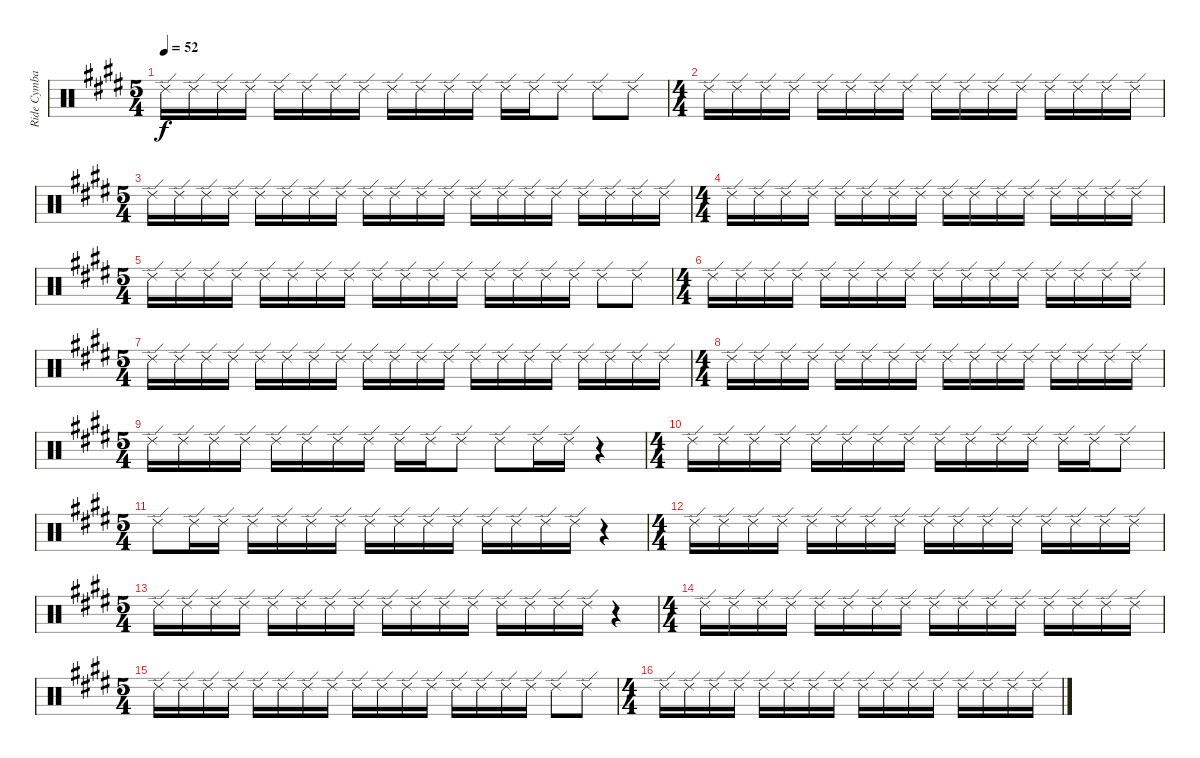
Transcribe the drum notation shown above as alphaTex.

\track ("Ride Cymbal" "Ride Cymba") {instrument percussion}
\staff {score}
\articulation defaults
\ts (5 4)
\tempo 52
\clef neutral
\ks e "Ride (edge) 2".16{dy f} "Ride (edge) 2".16 "Ride (edge) 2".16 "Ride (edge) 2".16 "Ride (edge) 2".16 "Ride (edge) 2".16 "Ride (edge) 2".16 "Ride (edge) 2".16 "Ride (edge) 2".16 "Ride (edge) 2".16 "Ride (edge) 2".16 "Ride (edge) 2".16 "Ride (edge) 2".16 "Ride (edge) 2".16 "Ride (edge) 2".8 "Ride (edge) 2".8 "Ride (edge) 2".8
|
\ts (4 4)
"Ride (edge) 2".16 "Ride (edge) 2".16 "Ride (edge) 2".16 "Ride (edge) 2".16 "Ride (edge) 2".16 "Ride (edge) 2".16 "Ride (edge) 2".16 "Ride (edge) 2".16 "Ride (edge) 2".16 "Ride (edge) 2".16 "Ride (edge) 2".16 "Ride (edge) 2".16 "Ride (edge) 2".16 "Ride (edge) 2".16 "Ride (edge) 2".16 "Ride (edge) 2".16 |
\ts (5 4)
"Ride (edge) 2".16 "Ride (edge) 2".16 "Ride (edge) 2".16 "Ride (edge) 2".16 "Ride (edge) 2".16 "Ride (edge) 2".16 "Ride (edge) 2".16 "Ride (edge) 2".16 "Ride (edge) 2".16 "Ride (edge) 2".16 "Ride (edge) 2".16 "Ride (edge) 2".16 "Ride (edge) 2".16 "Ride (edge) 2".16 "Ride (edge) 2".16 "Ride (edge) 2".16 "Ride (edge) 2".16 "Ride (edge) 2".16 "Ride (edge) 2".16 "Ride (edge) 2".16 |
\ts (4 4)
"Ride (edge) 2".16 "Ride (edge) 2".16 "Ride (edge) 2".16 "Ride (edge) 2".16 "Ride (edge) 2".16 "Ride (edge) 2".16 "Ride (edge) 2".16 "Ride (edge) 2".16 "Ride (edge) 2".16 "Ride (edge) 2".16 "Ride (edge) 2".16 "Ride (edge) 2".16 "Ride (edge) 2".16 "Ride (edge) 2".16 "Ride (edge) 2".16 "Ride (edge) 2".16 |
\ts (5 4)
"Ride (edge) 2".16 "Ride (edge) 2".16 "Ride (edge) 2".16 "Ride (edge) 2".16 "Ride (edge) 2".16 "Ride (edge) 2".16 "Ride (edge) 2".16 "Ride (edge) 2".16 "Ride (edge) 2".16 "Ride (edge) 2".16 "Ride (edge) 2".16 "Ride (edge) 2".16 "Ride (edge) 2".16 "Ride (edge) 2".16 "Ride (edge) 2".16 "Ride (edge) 2".16 "Ride (edge) 2".8 "Ride (edge) 2".8 |
\ts (4 4)
"Ride (edge) 2".16 "Ride (edge) 2".16 "Ride (edge) 2".16 "Ride (edge) 2".16 "Ride (edge) 2".16 "Ride (edge) 2".16 "Ride (edge) 2".16 "Ride (edge) 2".16 "Ride (edge) 2".16 "Ride (edge) 2".16 "Ride (edge) 2".16 "Ride (edge) 2".16 "Ride (edge) 2".16 "Ride (edge) 2".16 "Ride (edge) 2".16 "Ride (edge) 2".16 |
\ts (5 4)
"Ride (edge) 2".16 "Ride (edge) 2".16 "Ride (edge) 2".16 "Ride (edge) 2".16 "Ride (edge) 2".16 "Ride (edge) 2".16 "Ride (edge) 2".16 "Ride (edge) 2".16 "Ride (edge) 2".16 "Ride (edge) 2".16 "Ride (edge) 2".16 "Ride (edge) 2".16 "Ride (edge) 2".16 "Ride (edge) 2".16 "Ride (edge) 2".16 "Ride (edge) 2".16 "Ride (edge) 2".16 "Ride (edge) 2".16 "Ride (edge) 2".16 "Ride (edge) 2".16 |
\ts (4 4)
"Ride (edge) 2".16 "Ride (edge) 2".16 "Ride (edge) 2".16 "Ride (edge) 2".16 "Ride (edge) 2".16 "Ride (edge) 2".16 "Ride (edge) 2".16 "Ride (edge) 2".16 "Ride (edge) 2".16 "Ride (edge) 2".16 "Ride (edge) 2".16 "Ride (edge) 2".16 "Ride (edge) 2".16 "Ride (edge) 2".16 "Ride (edge) 2".16 "Ride (edge) 2".16 |
\ts (5 4)
"Ride (edge) 2".16 "Ride (edge) 2".16 "Ride (edge) 2".16 "Ride (edge) 2".16 "Ride (edge) 2".16 "Ride (edge) 2".16 "Ride (edge) 2".16 "Ride (edge) 2".16 "Ride (edge) 2".16 "Ride (edge) 2".16 "Ride (edge) 2".8 "Ride (edge) 2".8 "Ride (edge) 2".16 "Ride (edge) 2".16 r.4 |
\ts (4 4)
"Ride (edge) 2".16 "Ride (edge) 2".16 "Ride (edge) 2".16 "Ride (edge) 2".16 "Ride (edge) 2".16 "Ride (edge) 2".16 "Ride (edge) 2".16 "Ride (edge) 2".16 "Ride (edge) 2".16 "Ride (edge) 2".16 "Ride (edge) 2".16 "Ride (edge) 2".16 "Ride (edge) 2".16 "Ride (edge) 2".16 "Ride (edge) 2".8 |
\ts (5 4)
"Ride (edge) 2".8 "Ride (edge) 2".16 "Ride (edge) 2".16 "Ride (edge) 2".16 "Ride (edge) 2".16 "Ride (edge) 2".16 "Ride (edge) 2".16 "Ride (edge) 2".16 "Ride (edge) 2".16 "Ride (edge) 2".16 "Ride (edge) 2".16 "Ride (edge) 2".16 "Ride (edge) 2".16 "Ride (edge) 2".16 "Ride (edge) 2".16 r.4 |
\ts (4 4)
"Ride (edge) 2".16 "Ride (edge) 2".16 "Ride (edge) 2".16 "Ride (edge) 2".16 "Ride (edge) 2".16 "Ride (edge) 2".16 "Ride (edge) 2".16 "Ride (edge) 2".16 "Ride (edge) 2".16 "Ride (edge) 2".16 "Ride (edge) 2".16 "Ride (edge) 2".16 "Ride (edge) 2".16 "Ride (edge) 2".16 "Ride (edge) 2".16 "Ride (edge) 2".16 |
\ts (5 4)
"Ride (edge) 2".16 "Ride (edge) 2".16 "Ride (edge) 2".16 "Ride (edge) 2".16 "Ride (edge) 2".16 "Ride (edge) 2".16 "Ride (edge) 2".16 "Ride (edge) 2".16 "Ride (edge) 2".16 "Ride (edge) 2".16 "Ride (edge) 2".16 "Ride (edge) 2".16 "Ride (edge) 2".16 "Ride (edge) 2".16 "Ride (edge) 2".16 "Ride (edge) 2".16 r.4 |
\ts (4 4)
"Ride (edge) 2".16 "Ride (edge) 2".16 "Ride (edge) 2".16 "Ride (edge) 2".16 "Ride (edge) 2".16 "Ride (edge) 2".16 "Ride (edge) 2".16 "Ride (edge) 2".16 "Ride (edge) 2".16 "Ride (edge) 2".16 "Ride (edge) 2".16 "Ride (edge) 2".16 "Ride (edge) 2".16 "Ride (edge) 2".16 "Ride (edge) 2".16 "Ride (edge) 2".16 |
\ts (5 4)
"Ride (edge) 2".16 "Ride (edge) 2".16 "Ride (edge) 2".16 "Ride (edge) 2".16 "Ride (edge) 2".16 "Ride (edge) 2".16 "Ride (edge) 2".16 "Ride (edge) 2".16 "Ride (edge) 2".16 "Ride (edge) 2".16 "Ride (edge) 2".16 "Ride (edge) 2".16 "Ride (edge) 2".16 "Ride (edge) 2".16 "Ride (edge) 2".16 "Ride (edge) 2".16 "Ride (edge) 2".8 "Ride (edge) 2".8 |
\ts (4 4)
"Ride (edge) 2".16 "Ride (edge) 2".16 "Ride (edge) 2".16 "Ride (edge) 2".16 "Ride (edge) 2".16 "Ride (edge) 2".16 "Ride (edge) 2".16 "Ride (edge) 2".16 "Ride (edge) 2".16 "Ride (edge) 2".16 "Ride (edge) 2".16 "Ride (edge) 2".16 "Ride (edge) 2".16 "Ride (edge) 2".16 "Ride (edge) 2".16 "Ride (edge) 2".16
